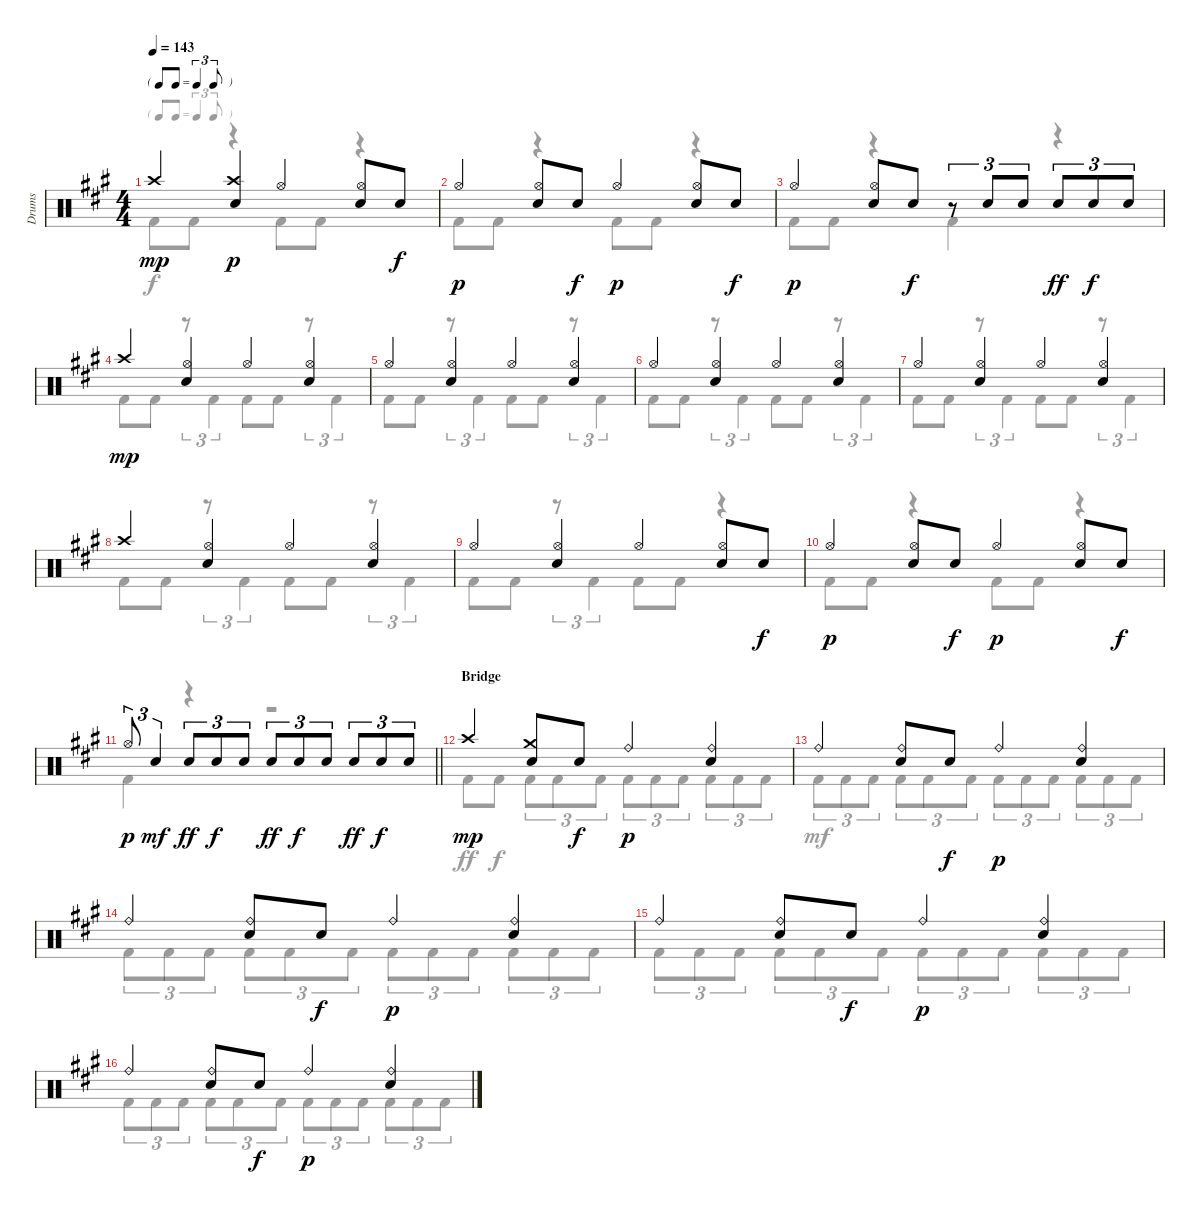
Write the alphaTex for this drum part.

\track ("Drums" "Drums") {instrument percussion}
\staff {score}
\articulation defaults
\voice
\ts (4 4)
\tf triplet8th
\tempo 143
\clef neutral
\ks a "Crash high (hit)".4{dy mp}
("Crash high (hit)" "Electric Snare (hit)").4{dy p} "Hi-Hat (open)".4 ("Hi-Hat (open)" "Electric Snare (hit)").8 "Electric Snare (hit)".8{dy f} |
"Hi-Hat (open)".4{dy p} ("Hi-Hat (open)" "Electric Snare (hit)").8 "Electric Snare (hit)".8{dy f} "Hi-Hat (open)".4{dy p} ("Hi-Hat (open)" "Electric Snare (hit)").8 "Electric Snare (hit)".8{dy f} |
"Hi-Hat (open)".4{dy p} ("Hi-Hat (open)" "Electric Snare (hit)").8 "Electric Snare (hit)".8{dy f} r.8{tu (3 2)} "Electric Snare (hit)".8{tu (3 2)} "Electric Snare (hit)".8{tu (3 2)} "Electric Snare (hit)".8{tu (3 2) dy ff} "Electric Snare (hit)".8{tu (3 2) dy f} "Electric Snare (hit)".8{tu (3 2)} |
"Crash high (hit)".4{dy mp} ("Hi-Hat (open)" "Electric Snare (hit)").4 "Hi-Hat (open)".4 ("Hi-Hat (open)" "Electric Snare (hit)").4 |
"Hi-Hat (open)".4 ("Hi-Hat (open)" "Electric Snare (hit)").4 "Hi-Hat (open)".4 ("Hi-Hat (open)" "Electric Snare (hit)").4 |
"Hi-Hat (open)".4 ("Hi-Hat (open)" "Electric Snare (hit)").4 "Hi-Hat (open)".4 ("Hi-Hat (open)" "Electric Snare (hit)").4 |
"Hi-Hat (open)".4 ("Hi-Hat (open)" "Electric Snare (hit)").4 "Hi-Hat (open)".4 ("Hi-Hat (open)" "Electric Snare (hit)").4 |
"Crash high (hit)".4 ("Hi-Hat (open)" "Electric Snare (hit)").4 "Hi-Hat (open)".4 ("Hi-Hat (open)" "Electric Snare (hit)").4 |
"Hi-Hat (open)".4 ("Hi-Hat (open)" "Electric Snare (hit)").4 "Hi-Hat (open)".4 ("Hi-Hat (open)" "Electric Snare (hit)").8 "Electric Snare (hit)".8{dy f} |
"Hi-Hat (open)".4{dy p} ("Hi-Hat (open)" "Electric Snare (hit)").8 "Electric Snare (hit)".8{dy f} "Hi-Hat (open)".4{dy p} ("Hi-Hat (open)" "Electric Snare (hit)").8 "Electric Snare (hit)".8{dy f} |
\barLineRight lightlight "Hi-Hat (open)".8{tu (3 2) dy p} "Electric Snare (hit)".4{tu (3 2) dy mf} "Electric Snare (hit)".8{tu (3 2) dy ff} "Electric Snare (hit)".8{tu (3 2) dy f} "Electric Snare (hit)".8{tu (3 2)} "Electric Snare (hit)".8{tu (3 2) dy ff} "Electric Snare (hit)".8{tu (3 2) dy f} "Electric Snare (hit)".8{tu (3 2)} "Electric Snare (hit)".8{tu (3 2) dy ff} "Electric Snare (hit)".8{tu (3 2) dy f} "Electric Snare (hit)".8{tu (3 2)}
|
\section ("" "Bridge")
"Crash high (hit)".4{dy mp} ("Electric Snare (hit)" "Crash medium (hit)").8 "Electric Snare (hit)".8{dy f} "Ride (bell)".4{dy p} ("Ride (bell)" "Electric Snare (hit)").4 |
"Ride (bell)".4 ("Electric Snare (hit)" "Ride (bell)").8 "Electric Snare (hit)".8{dy f} "Ride (bell)".4{dy p} ("Ride (bell)" "Electric Snare (hit)").4 |
"Ride (bell)".4 ("Electric Snare (hit)" "Ride (bell)").8 "Electric Snare (hit)".8{dy f} "Ride (bell)".4{dy p} ("Ride (bell)" "Electric Snare (hit)").4 |
"Ride (bell)".4 ("Electric Snare (hit)" "Ride (bell)").8 "Electric Snare (hit)".8{dy f} "Ride (bell)".4{dy p} ("Ride (bell)" "Electric Snare (hit)").4 |
"Ride (bell)".4 ("Electric Snare (hit)" "Ride (bell)").8 "Electric Snare (hit)".8{dy f} "Ride (bell)".4{dy p} ("Ride (bell)" "Electric Snare (hit)").4
\voice
\clef neutral
\ottava regular
\simile none
\ks a "Kick (hit) 2".8{dy f} "Kick (hit) 2".8
r.4 "Kick (hit) 2".8 "Kick (hit) 2".8 r.4 |
"Kick (hit) 2".8 "Kick (hit) 2".8 r.4 "Kick (hit) 2".8 "Kick (hit) 2".8 r.4 |
"Kick (hit) 2".8 "Kick (hit) 2".8 r.4 "Kick (hit) 2".4 r.4 |
"Kick (hit) 2".8 "Kick (hit) 2".8 r.8{tu (3 2)} "Kick (hit) 2".4{tu (3 2)} "Kick (hit) 2".8 "Kick (hit) 2".8 r.8{tu (3 2)} "Kick (hit) 2".4{tu (3 2)} |
"Kick (hit) 2".8 "Kick (hit) 2".8 r.8{tu (3 2)} "Kick (hit) 2".4{tu (3 2)} "Kick (hit) 2".8 "Kick (hit) 2".8 r.8{tu (3 2)} "Kick (hit) 2".4{tu (3 2)} |
"Kick (hit) 2".8 "Kick (hit) 2".8 r.8{tu (3 2)} "Kick (hit) 2".4{tu (3 2)} "Kick (hit) 2".8 "Kick (hit) 2".8 r.8{tu (3 2)} "Kick (hit) 2".4{tu (3 2)} |
"Kick (hit) 2".8 "Kick (hit) 2".8 r.8{tu (3 2)} "Kick (hit) 2".4{tu (3 2)} "Kick (hit) 2".8 "Kick (hit) 2".8 r.8{tu (3 2)} "Kick (hit) 2".4{tu (3 2)} |
"Kick (hit) 2".8 "Kick (hit) 2".8 r.8{tu (3 2)} "Kick (hit) 2".4{tu (3 2)} "Kick (hit) 2".8 "Kick (hit) 2".8 r.8{tu (3 2)} "Kick (hit) 2".4{tu (3 2)} |
"Kick (hit) 2".8 "Kick (hit) 2".8 r.8{tu (3 2)} "Kick (hit) 2".4{tu (3 2)} "Kick (hit) 2".8 "Kick (hit) 2".8 r.4 |
"Kick (hit) 2".8 "Kick (hit) 2".8 r.4 "Kick (hit) 2".8 "Kick (hit) 2".8 r.4 |
\barLineRight lightlight "Kick (hit) 2".4
r.4 r.2 |
"Kick (hit) 2".8{dy ff} "Kick (hit) 2".8{dy f} "Kick (hit) 2".8{tu (3 2)} "Kick (hit) 2".8{tu (3 2)} "Kick (hit) 2".8{tu (3 2)} "Kick (hit) 2".8{tu (3 2)} "Kick (hit) 2".8{tu (3 2)} "Kick (hit) 2".8{tu (3 2)} "Kick (hit) 2".8{tu (3 2)} "Kick (hit) 2".8{tu (3 2)} "Kick (hit) 2".8{tu (3 2)} |
"Kick (hit) 2".8{tu (3 2) dy mf} "Kick (hit) 2".8{tu (3 2)} "Kick (hit) 2".8{tu (3 2)} "Kick (hit) 2".8{tu (3 2)} "Kick (hit) 2".8{tu (3 2)} "Kick (hit) 2".8{tu (3 2)} "Kick (hit) 2".8{tu (3 2)} "Kick (hit) 2".8{tu (3 2)} "Kick (hit) 2".8{tu (3 2)} "Kick (hit) 2".8{tu (3 2)} "Kick (hit) 2".8{tu (3 2)} "Kick (hit) 2".8{tu (3 2)} |
"Kick (hit) 2".8{tu (3 2)} "Kick (hit) 2".8{tu (3 2)} "Kick (hit) 2".8{tu (3 2)} "Kick (hit) 2".8{tu (3 2)} "Kick (hit) 2".8{tu (3 2)} "Kick (hit) 2".8{tu (3 2)} "Kick (hit) 2".8{tu (3 2)} "Kick (hit) 2".8{tu (3 2)} "Kick (hit) 2".8{tu (3 2)} "Kick (hit) 2".8{tu (3 2)} "Kick (hit) 2".8{tu (3 2)} "Kick (hit) 2".8{tu (3 2)} |
"Kick (hit) 2".8{tu (3 2)} "Kick (hit) 2".8{tu (3 2)} "Kick (hit) 2".8{tu (3 2)} "Kick (hit) 2".8{tu (3 2)} "Kick (hit) 2".8{tu (3 2)} "Kick (hit) 2".8{tu (3 2)} "Kick (hit) 2".8{tu (3 2)} "Kick (hit) 2".8{tu (3 2)} "Kick (hit) 2".8{tu (3 2)} "Kick (hit) 2".8{tu (3 2)} "Kick (hit) 2".8{tu (3 2)} "Kick (hit) 2".8{tu (3 2)} |
"Kick (hit) 2".8{tu (3 2)} "Kick (hit) 2".8{tu (3 2)} "Kick (hit) 2".8{tu (3 2)} "Kick (hit) 2".8{tu (3 2)} "Kick (hit) 2".8{tu (3 2)} "Kick (hit) 2".8{tu (3 2)} "Kick (hit) 2".8{tu (3 2)} "Kick (hit) 2".8{tu (3 2)} "Kick (hit) 2".8{tu (3 2)} "Kick (hit) 2".8{tu (3 2)} "Kick (hit) 2".8{tu (3 2)} "Kick (hit) 2".8{tu (3 2)}
